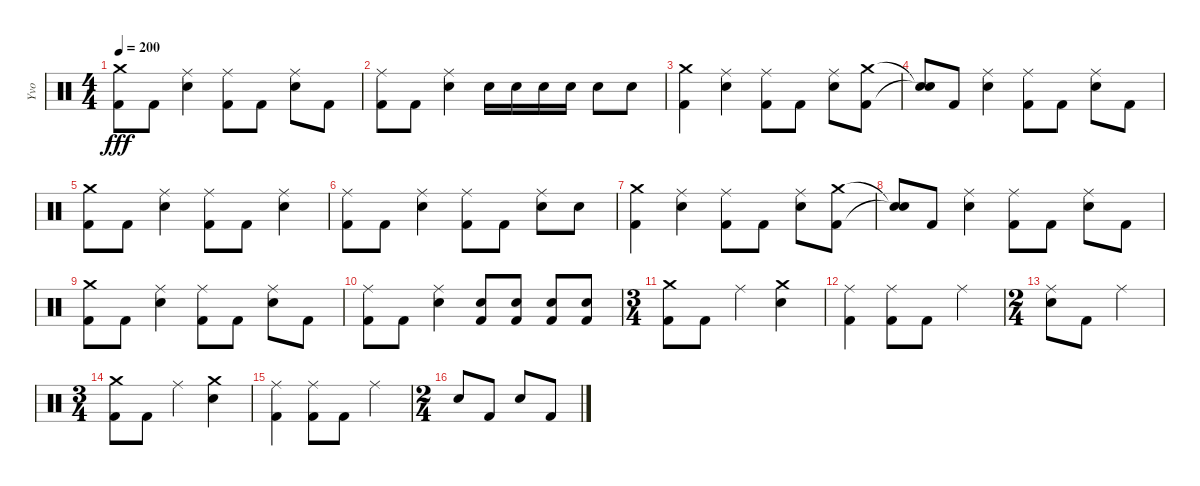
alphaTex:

\track ("Yvo" "Yvo") {instrument percussion}
\staff {score}
\articulation defaults
\ts (4 4)
\tempo 200
\clef neutral
\ks c
("Crash medium (hit)" "Kick (hit) 2").8{dy fff} "Kick (hit) 2".8 ("Ride (middle)" "Electric Snare (hit)").4 ("Ride (middle)" "Kick (hit) 2").8 "Kick (hit) 2".8 ("Ride (middle)" "Electric Snare (hit)").8 "Kick (hit) 2".8 |
("Ride (middle)" "Kick (hit) 2").8 "Kick (hit) 2".8 ("Ride (middle)" "Electric Snare (hit)").4 "Electric Snare (hit)".16 "Electric Snare (hit)".16 "Electric Snare (hit)".16 "Electric Snare (hit)".16 "Electric Snare (hit)".8 "Electric Snare (hit)".8 |
("Crash medium (hit)" "Kick (hit) 2").4 ("Ride (middle)" "Electric Snare (hit)").4 ("Ride (middle)" "Kick (hit) 2").8 "Kick (hit) 2".8 ("Ride (middle)" "Electric Snare (hit)").8 ("Crash medium (hit)" "Kick (hit) 2").8 |
("Snare (hit)"{t} "Snare (hit)"{t}).8 "Kick (hit) 2".8 ("Ride (middle)" "Electric Snare (hit)").4 ("Ride (middle)" "Kick (hit) 2").8 "Kick (hit) 2".8 ("Ride (middle)" "Electric Snare (hit)").8 "Kick (hit) 2".8 |
("Crash medium (hit)" "Kick (hit) 2").8 "Kick (hit) 2".8 ("Ride (middle)" "Electric Snare (hit)").4 ("Ride (middle)" "Kick (hit) 2").8 "Kick (hit) 2".8 ("Ride (middle)" "Electric Snare (hit)").4 |
("Ride (middle)" "Kick (hit) 2").8 "Kick (hit) 2".8 ("Ride (middle)" "Electric Snare (hit)").4 ("Ride (middle)" "Kick (hit) 2").8 "Kick (hit) 2".8 ("Ride (middle)" "Electric Snare (hit)").8 "Electric Snare (hit)".8 |
("Crash medium (hit)" "Kick (hit) 2").4 ("Ride (middle)" "Electric Snare (hit)").4 ("Ride (middle)" "Kick (hit) 2").8 "Kick (hit) 2".8 ("Ride (middle)" "Electric Snare (hit)").8 ("Crash medium (hit)" "Kick (hit) 2").8 |
("Snare (hit)"{t} "Snare (hit)"{t}).8 "Kick (hit) 2".8 ("Ride (middle)" "Electric Snare (hit)").4 ("Ride (middle)" "Kick (hit) 2").8 "Kick (hit) 2".8 ("Ride (middle)" "Electric Snare (hit)").8 "Kick (hit) 2".8 |
("Crash medium (hit)" "Kick (hit) 2").8 "Kick (hit) 2".8 ("Ride (middle)" "Electric Snare (hit)").4 ("Ride (middle)" "Kick (hit) 2").8 "Kick (hit) 2".8 ("Ride (middle)" "Electric Snare (hit)").8 "Kick (hit) 2".8 |
("Ride (middle)" "Kick (hit) 2").8 "Kick (hit) 2".8 ("Ride (middle)" "Electric Snare (hit)").4 ("Electric Snare (hit)" "Kick (hit) 2").8 ("Electric Snare (hit)" "Kick (hit) 2").8 ("Electric Snare (hit)" "Kick (hit) 2").8 ("Electric Snare (hit)" "Kick (hit) 2").8 |
\ts (3 4)
("Crash medium (hit)" "Kick (hit) 2").8 "Kick (hit) 2".8 "Ride (middle)".4 ("Crash medium (hit)" "Electric Snare (hit)").4 |
("Ride (middle)" "Kick (hit) 2").4 ("Ride (middle)" "Kick (hit) 2").8 "Kick (hit) 2".8 "Ride (middle)".4 |
\ts (2 4)
("Ride (middle)" "Electric Snare (hit)").8 "Kick (hit) 2".8 "Ride (middle)".4 |
\ts (3 4)
("Crash medium (hit)" "Kick (hit) 2").8 "Kick (hit) 2".8 "Ride (middle)".4 ("Crash medium (hit)" "Electric Snare (hit)").4 |
("Ride (middle)" "Kick (hit) 2").4 ("Ride (middle)" "Kick (hit) 2").8 "Kick (hit) 2".8 "Ride (middle)".4 |
\ts (2 4)
"Electric Snare (hit)".8 "Kick (hit) 2".8 "Electric Snare (hit)".8 "Kick (hit) 2".8
